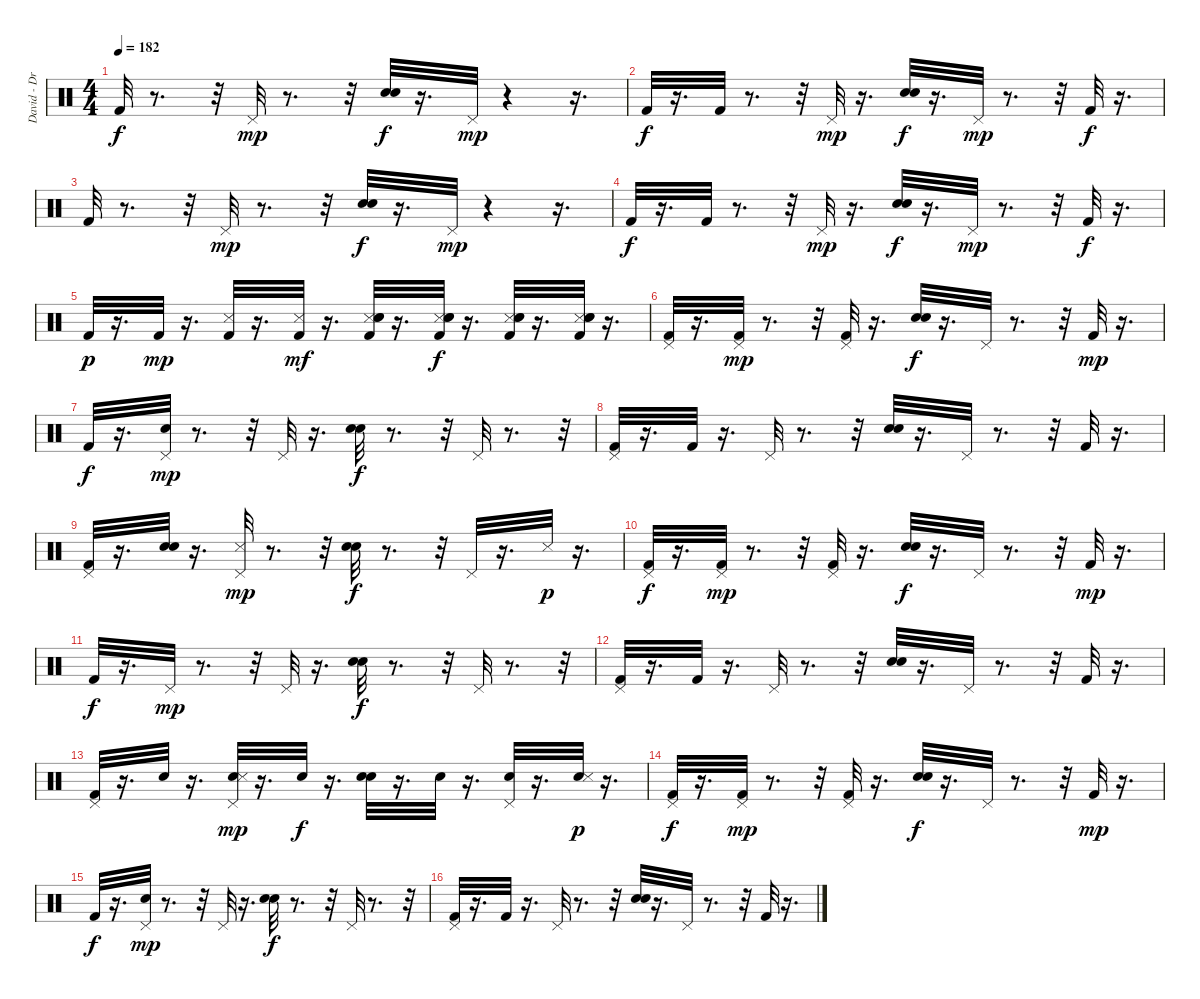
\track ("David - Drums" "David - Dr") {instrument percussion}
\staff {score}
\articulation defaults
\ts (4 4)
\tempo 182
\clef neutral
\ks c "Kick (hit) 2".32{dy f}
r.8{d} r.32 "Pedal Hi-Hat (hit)".32{dy mp} r.8{d} r.32 ("Snare (hit) 2" "Electric Snare (hit)").32{dy f} r.16{d} "Pedal Hi-Hat (hit)".32{dy mp} r.4 r.16{d} |
"Kick (hit) 2".32{dy f} r.16{d} "Kick (hit) 2".32 r.8{d} r.32 "Pedal Hi-Hat (hit)".32{dy mp} r.16{d} ("Electric Snare (hit)" "Snare (hit) 2").32{dy f} r.16{d} "Pedal Hi-Hat (hit)".32{dy mp} r.8{d} r.32 "Kick (hit) 2".32{dy f} r.16{d} |
"Kick (hit) 2".32 r.8{d} r.32 "Pedal Hi-Hat (hit)".32{dy mp} r.8{d} r.32 ("Snare (hit) 2" "Electric Snare (hit)").32{dy f} r.16{d} "Pedal Hi-Hat (hit)".32{dy mp} r.4 r.16{d} |
"Kick (hit) 2".32{dy f} r.16{d} "Kick (hit) 2".32 r.8{d} r.32 "Pedal Hi-Hat (hit)".32{dy mp} r.16{d} ("Electric Snare (hit)" "Snare (hit) 2").32{dy f} r.16{d} "Pedal Hi-Hat (hit)".32{dy mp} r.8{d} r.32 "Kick (hit) 2".32{dy f} r.16{d} |
"Kick (hit) 2".32{dy p} r.16{d} "Kick (hit) 2".32{dy mp} r.16{d} ("Snare (side stick) 3" "Kick (hit) 2").32 r.16{d} ("Snare (side stick) 3" "Kick (hit) 2").32{dy mf} r.16{d} ("Kick (hit) 2" "Snare (side stick) 3" "Snare (hit) 2" "Electric Snare (hit)").32 r.16{d} ("Kick (hit) 2" "Snare (side stick) 3" "Snare (hit) 2" "Electric Snare (hit)").32{dy f} r.16{d} ("Kick (hit) 2" "Snare (side stick) 3" "Snare (hit) 2" "Electric Snare (hit)").32 r.16{d} ("Kick (hit) 2" "Snare (side stick) 3" "Snare (hit) 2" "Electric Snare (hit)").32 r.16{d} |
("Pedal Hi-Hat (hit)" "Kick (hit) 2").32 r.16{d} ("Kick (hit) 2" "Pedal Hi-Hat (hit)").32{dy mp} r.8{d} r.32 ("Pedal Hi-Hat (hit)" "Kick (hit) 2").32 r.16{d} ("Snare (hit) 2" "Electric Snare (hit)").32{dy f} r.16{d} "Pedal Hi-Hat (hit)".32 r.8{d} r.32 "Kick (hit) 2".32{dy mp} r.16{d} |
"Kick (hit) 2".32{dy f} r.16{d} ("Pedal Hi-Hat (hit)" "Electric Snare (hit)").32{dy mp} r.8{d} r.32 "Pedal Hi-Hat (hit)".32 r.16{d} ("Snare (hit) 2" "Electric Snare (hit)").32{dy f} r.8{d} r.32 "Pedal Hi-Hat (hit)".32 r.8{d} r.32 |
("Pedal Hi-Hat (hit)" "Kick (hit) 2").32 r.16{d} "Kick (hit) 2".32 r.16{d} "Pedal Hi-Hat (hit)".32 r.8{d} r.32 ("Snare (hit) 2" "Electric Snare (hit)").32 r.16{d} "Pedal Hi-Hat (hit)".32 r.8{d} r.32 "Kick (hit) 2".32 r.16{d} |
("Pedal Hi-Hat (hit)" "Kick (hit) 2").32 r.16{d} ("Snare (hit) 2" "Hand Clap (hit)").32 r.16{d} ("Pedal Hi-Hat (hit)" "Snare (side stick) 3").32{dy mp} r.8{d} r.32 ("Snare (hit) 2" "Electric Snare (hit)").32{dy f} r.8{d} r.32 "Pedal Hi-Hat (hit)".32 r.16{d} "Snare (side stick) 3".32{dy p} r.16{d} |
("Pedal Hi-Hat (hit)" "Kick (hit) 2").32{dy f} r.16{d} ("Kick (hit) 2" "Pedal Hi-Hat (hit)").32{dy mp} r.8{d} r.32 ("Pedal Hi-Hat (hit)" "Kick (hit) 2").32 r.16{d} ("Snare (hit) 2" "Electric Snare (hit)").32{dy f} r.16{d} "Pedal Hi-Hat (hit)".32 r.8{d} r.32 "Kick (hit) 2".32{dy mp} r.16{d} |
"Kick (hit) 2".32{dy f} r.16{d} "Pedal Hi-Hat (hit)".32{dy mp} r.8{d} r.32 "Pedal Hi-Hat (hit)".32 r.16{d} ("Snare (hit) 2" "Electric Snare (hit)").32{dy f} r.8{d} r.32 "Pedal Hi-Hat (hit)".32 r.8{d} r.32 |
("Pedal Hi-Hat (hit)" "Kick (hit) 2").32 r.16{d} "Kick (hit) 2".32 r.16{d} "Pedal Hi-Hat (hit)".32 r.8{d} r.32 ("Snare (hit) 2" "Electric Snare (hit)").32 r.16{d} "Pedal Hi-Hat (hit)".32 r.8{d} r.32 "Kick (hit) 2".32 r.16{d} |
("Pedal Hi-Hat (hit)" "Kick (hit) 2").32 r.16{d} "Electric Snare (hit)".32 r.16{d} ("Electric Snare (hit)" "Pedal Hi-Hat (hit)" "Snare (side stick) 3").32{dy mp} r.16{d} "Electric Snare (hit)".32{dy f} r.16{d} ("Snare (hit) 2" "Electric Snare (hit)").32 r.16{d} "Electric Snare (hit)".32 r.16{d} ("Electric Snare (hit)" "Pedal Hi-Hat (hit)").32 r.16{d} ("Electric Snare (hit)" "Snare (side stick) 3").32{dy p} r.16{d} |
("Pedal Hi-Hat (hit)" "Kick (hit) 2").32{dy f} r.16{d} ("Kick (hit) 2" "Pedal Hi-Hat (hit)").32{dy mp} r.8{d} r.32 ("Pedal Hi-Hat (hit)" "Kick (hit) 2").32 r.16{d} ("Snare (hit) 2" "Electric Snare (hit)").32{dy f} r.16{d} "Pedal Hi-Hat (hit)".32 r.8{d} r.32 "Kick (hit) 2".32{dy mp} r.16{d} |
"Kick (hit) 2".32{dy f} r.16{d} ("Pedal Hi-Hat (hit)" "Electric Snare (hit)").32{dy mp} r.8{d} r.32 "Pedal Hi-Hat (hit)".32 r.16{d} ("Snare (hit) 2" "Electric Snare (hit)").32{dy f} r.8{d} r.32 "Pedal Hi-Hat (hit)".32 r.8{d} r.32 |
("Pedal Hi-Hat (hit)" "Kick (hit) 2").32 r.16{d} "Kick (hit) 2".32 r.16{d} "Pedal Hi-Hat (hit)".32 r.8{d} r.32 ("Snare (hit) 2" "Electric Snare (hit)").32 r.16{d} "Pedal Hi-Hat (hit)".32 r.8{d} r.32 "Kick (hit) 2".32 r.16{d}
